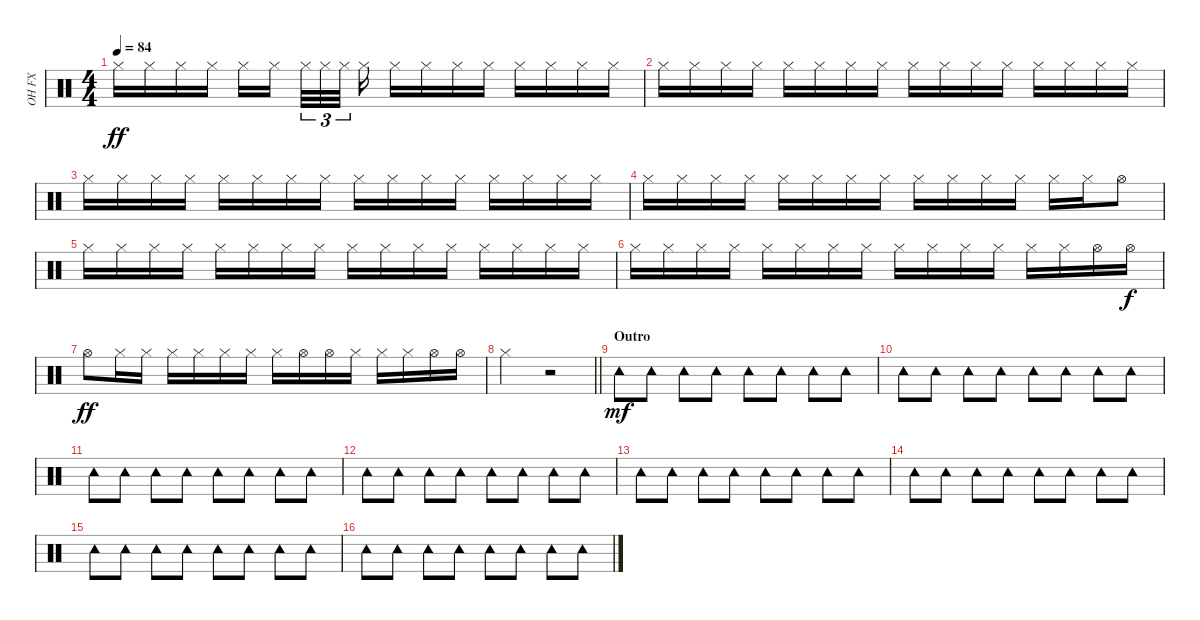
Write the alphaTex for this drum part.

\track ("OH FX" "OH FX") {instrument percussion}
\staff {score}
\articulation defaults
\ts (4 4)
\tempo 84
\clef neutral
\ks c "Hi-Hat (closed)".16{dy ff} "Hi-Hat (closed)".16 "Hi-Hat (closed)".16 "Hi-Hat (closed)".16 "Hi-Hat (closed)".16 "Hi-Hat (closed)".16{beam splitsecondary} "Hi-Hat (closed)".32{tu (3 2)} "Hi-Hat (closed)".32{tu (3 2)} "Hi-Hat (closed)".32{tu (3 2) beam splitsecondary} "Hi-Hat (closed)".16 "Hi-Hat (closed)".16 "Hi-Hat (closed)".16 "Hi-Hat (closed)".16 "Hi-Hat (closed)".16 "Hi-Hat (closed)".16 "Hi-Hat (closed)".16 "Hi-Hat (closed)".16 "Hi-Hat (closed)".16
|
"Hi-Hat (closed)".16 "Hi-Hat (closed)".16 "Hi-Hat (closed)".16 "Hi-Hat (closed)".16 "Hi-Hat (closed)".16 "Hi-Hat (closed)".16 "Hi-Hat (closed)".16 "Hi-Hat (closed)".16 "Hi-Hat (closed)".16 "Hi-Hat (closed)".16 "Hi-Hat (closed)".16 "Hi-Hat (closed)".16 "Hi-Hat (closed)".16 "Hi-Hat (closed)".16 "Hi-Hat (closed)".16 "Hi-Hat (closed)".16 |
"Hi-Hat (closed)".16 "Hi-Hat (closed)".16 "Hi-Hat (closed)".16 "Hi-Hat (closed)".16 "Hi-Hat (closed)".16 "Hi-Hat (closed)".16 "Hi-Hat (closed)".16 "Hi-Hat (closed)".16 "Hi-Hat (closed)".16 "Hi-Hat (closed)".16 "Hi-Hat (closed)".16 "Hi-Hat (closed)".16 "Hi-Hat (closed)".16 "Hi-Hat (closed)".16 "Hi-Hat (closed)".16 "Hi-Hat (closed)".16 |
"Hi-Hat (closed)".16 "Hi-Hat (closed)".16 "Hi-Hat (closed)".16 "Hi-Hat (closed)".16 "Hi-Hat (closed)".16 "Hi-Hat (closed)".16 "Hi-Hat (closed)".16 "Hi-Hat (closed)".16 "Hi-Hat (closed)".16 "Hi-Hat (closed)".16 "Hi-Hat (closed)".16 "Hi-Hat (closed)".16 "Hi-Hat (closed)".16 "Hi-Hat (closed)".16 "Hi-Hat (open)".8 |
"Hi-Hat (closed)".16 "Hi-Hat (closed)".16 "Hi-Hat (closed)".16 "Hi-Hat (closed)".16 "Hi-Hat (closed)".16 "Hi-Hat (closed)".16 "Hi-Hat (closed)".16 "Hi-Hat (closed)".16 "Hi-Hat (closed)".16 "Hi-Hat (closed)".16 "Hi-Hat (closed)".16 "Hi-Hat (closed)".16 "Hi-Hat (closed)".16 "Hi-Hat (closed)".16 "Hi-Hat (closed)".16 "Hi-Hat (closed)".16 |
"Hi-Hat (closed)".16 "Hi-Hat (closed)".16 "Hi-Hat (closed)".16 "Hi-Hat (closed)".16 "Hi-Hat (closed)".16 "Hi-Hat (closed)".16 "Hi-Hat (closed)".16 "Hi-Hat (closed)".16 "Hi-Hat (closed)".16 "Hi-Hat (closed)".16 "Hi-Hat (closed)".16 "Hi-Hat (closed)".16 "Hi-Hat (closed)".16 "Hi-Hat (closed)".16 "Hi-Hat (open)".16 "Hi-Hat (open)".16{dy f} |
"Hi-Hat (open)".8{dy ff} "Hi-Hat (closed)".16 "Hi-Hat (closed)".16 "Hi-Hat (closed)".16 "Hi-Hat (closed)".16 "Hi-Hat (closed)".16 "Hi-Hat (closed)".16 "Hi-Hat (closed)".16 "Hi-Hat (open)".16 "Hi-Hat (open)".16 "Hi-Hat (closed)".16 "Hi-Hat (closed)".16 "Hi-Hat (closed)".16 "Hi-Hat (open)".16 "Hi-Hat (open)".16 |
\barLineRight lightlight "Hi-Hat (closed)".2
r.2{volume 0} |
\section ("" "Outro")
"Tambourine (hit)".8{dy mf volume 2 balance 1} "Tambourine (hit)".8 "Tambourine (hit)".8 "Tambourine (hit)".8 "Tambourine (hit)".8 "Tambourine (hit)".8 "Tambourine (hit)".8 "Tambourine (hit)".8 |
"Tambourine (hit)".8 "Tambourine (hit)".8 "Tambourine (hit)".8 "Tambourine (hit)".8 "Tambourine (hit)".8 "Tambourine (hit)".8 "Tambourine (hit)".8 "Tambourine (hit)".8 |
"Tambourine (hit)".8 "Tambourine (hit)".8 "Tambourine (hit)".8 "Tambourine (hit)".8 "Tambourine (hit)".8 "Tambourine (hit)".8 "Tambourine (hit)".8 "Tambourine (hit)".8 |
"Tambourine (hit)".8 "Tambourine (hit)".8 "Tambourine (hit)".8 "Tambourine (hit)".8 "Tambourine (hit)".8 "Tambourine (hit)".8 "Tambourine (hit)".8 "Tambourine (hit)".8 |
"Tambourine (hit)".8 "Tambourine (hit)".8 "Tambourine (hit)".8 "Tambourine (hit)".8 "Tambourine (hit)".8 "Tambourine (hit)".8 "Tambourine (hit)".8 "Tambourine (hit)".8 |
"Tambourine (hit)".8 "Tambourine (hit)".8 "Tambourine (hit)".8 "Tambourine (hit)".8 "Tambourine (hit)".8 "Tambourine (hit)".8 "Tambourine (hit)".8 "Tambourine (hit)".8 |
"Tambourine (hit)".8 "Tambourine (hit)".8 "Tambourine (hit)".8 "Tambourine (hit)".8 "Tambourine (hit)".8 "Tambourine (hit)".8 "Tambourine (hit)".8 "Tambourine (hit)".8 |
"Tambourine (hit)".8 "Tambourine (hit)".8 "Tambourine (hit)".8 "Tambourine (hit)".8 "Tambourine (hit)".8 "Tambourine (hit)".8 "Tambourine (hit)".8 "Tambourine (hit)".8
